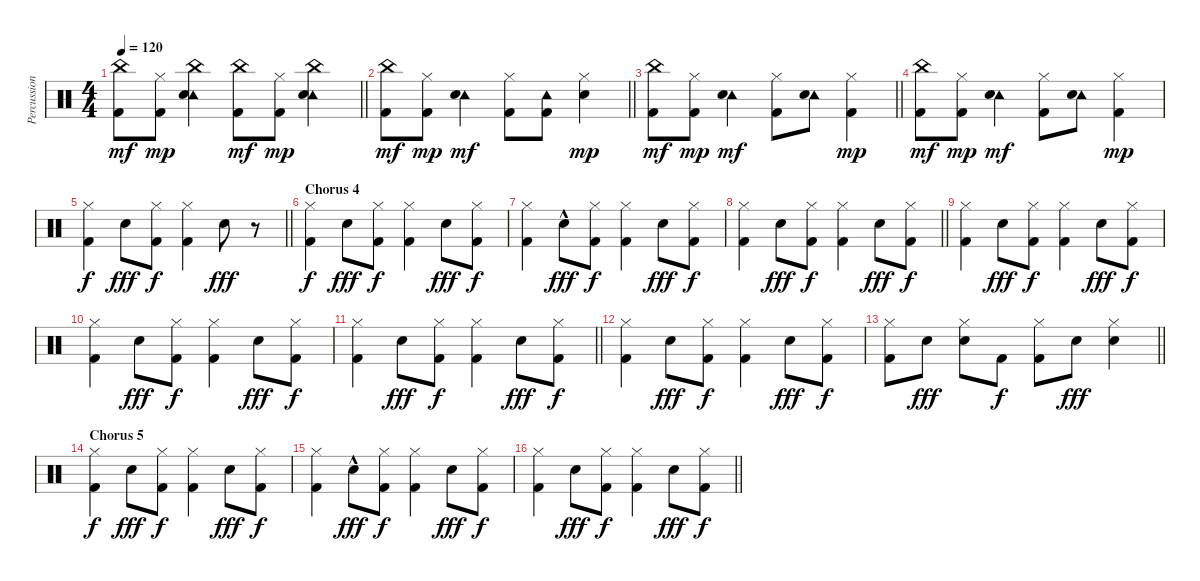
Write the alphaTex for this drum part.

\track ("Percussion" "Percussion") {instrument percussion}
\staff {score}
\articulation defaults
\ts (4 4)
\tempo 120
\clef neutral
\barLineRight lightlight
\ks c
("China (hit)" "Kick (hit) 2").8{dy mf} ("Hi-Hat (closed)" "Kick (hit) 2").8{dy mp} ("Tambourine (hit)" "Snare (hit) 2" "China (hit)").4 ("China (hit)" "Kick (hit) 2").8{dy mf} ("Hi-Hat (closed)" "Kick (hit) 2").8{dy mp} ("Tambourine (hit)" "Snare (hit) 2" "China (hit)").4 |
\barLineRight lightlight
("China (hit)" "Kick (hit) 2").8{dy mf} ("Hi-Hat (closed)" "Kick (hit) 2").8{dy mp} ("Tambourine (hit)" "Snare (hit) 2").4{dy mf} ("Hi-Hat (closed)" "Kick (hit) 2").8 ("Tambourine (hit)" "Kick (hit) 2").8 ("Hi-Hat (closed)" "Snare (hit) 2").4{dy mp} |
\barLineRight lightlight
("China (hit)" "Kick (hit) 2").8{dy mf} ("Hi-Hat (closed)" "Kick (hit) 2").8{dy mp} ("Tambourine (hit)" "Snare (hit) 2").4{dy mf} ("Hi-Hat (closed)" "Kick (hit) 2").8 ("Tambourine (hit)" "Snare (hit) 2").8 ("Hi-Hat (closed)" "Kick (hit) 2").4{dy mp} |
("China (hit)" "Kick (hit) 2").8{dy mf} ("Hi-Hat (closed)" "Kick (hit) 2").8{dy mp} ("Tambourine (hit)" "Snare (hit) 2").4{dy mf} ("Hi-Hat (closed)" "Kick (hit) 2").8 ("Tambourine (hit)" "Snare (hit) 2").8 ("Hi-Hat (closed)" "Kick (hit) 2").4{dy mp} |
\barLineRight lightlight
("Kick (hit) 2" "Hi-Hat (closed)").4{dy f} "Snare (hit) 2".8{dy fff} ("Kick (hit) 2" "Hi-Hat (closed)").8{dy f} ("Kick (hit) 2" "Hi-Hat (closed)").4 "Snare (hit) 2".8{dy fff} r.8 |
\section ("" "Chorus 4")
("Kick (hit) 2" "Hi-Hat (closed)").4{dy f} "Snare (hit) 2".8{dy fff} ("Kick (hit) 2" "Hi-Hat (closed)").8{dy f} ("Kick (hit) 2" "Hi-Hat (closed)").4 "Snare (hit) 2".8{dy fff} ("Kick (hit) 2" "Hi-Hat (closed)").8{dy f} |
("Kick (hit) 2" "Hi-Hat (closed)").4 "Snare (hit) 2"{hac}.8{dy fff} ("Kick (hit) 2" "Hi-Hat (closed)").8{dy f} ("Kick (hit) 2" "Hi-Hat (closed)").4 "Snare (hit) 2".8{dy fff} ("Kick (hit) 2" "Hi-Hat (closed)").8{dy f} |
\barLineRight lightlight
("Kick (hit) 2" "Hi-Hat (closed)").4 "Snare (hit) 2".8{dy fff} ("Kick (hit) 2" "Hi-Hat (closed)").8{dy f} ("Kick (hit) 2" "Hi-Hat (closed)").4 "Snare (hit) 2".8{dy fff} ("Kick (hit) 2" "Hi-Hat (closed)").8{dy f} |
("Kick (hit) 2" "Hi-Hat (closed)").4 "Snare (hit) 2".8{dy fff} ("Kick (hit) 2" "Hi-Hat (closed)").8{dy f} ("Kick (hit) 2" "Hi-Hat (closed)").4 "Snare (hit) 2".8{dy fff} ("Kick (hit) 2" "Hi-Hat (closed)").8{dy f} |
("Kick (hit) 2" "Hi-Hat (closed)").4 "Snare (hit) 2".8{dy fff} ("Kick (hit) 2" "Hi-Hat (closed)").8{dy f} ("Kick (hit) 2" "Hi-Hat (closed)").4 "Snare (hit) 2".8{dy fff} ("Kick (hit) 2" "Hi-Hat (closed)").8{dy f} |
\barLineRight lightlight
("Kick (hit) 2" "Hi-Hat (closed)").4 "Snare (hit) 2".8{dy fff} ("Kick (hit) 2" "Hi-Hat (closed)").8{dy f} ("Kick (hit) 2" "Hi-Hat (closed)").4 "Snare (hit) 2".8{dy fff} ("Kick (hit) 2" "Hi-Hat (closed)").8{dy f} |
("Kick (hit) 2" "Hi-Hat (closed)").4 "Snare (hit) 2".8{dy fff} ("Kick (hit) 2" "Hi-Hat (closed)").8{dy f} ("Kick (hit) 2" "Hi-Hat (closed)").4 "Snare (hit) 2".8{dy fff} ("Kick (hit) 2" "Hi-Hat (closed)").8{dy f} |
\barLineRight lightlight
("Kick (hit) 2" "Hi-Hat (closed)").8 "Snare (hit) 2".8{dy fff} ("Snare (hit) 2" "Hi-Hat (closed)").8 "Kick (hit) 2".8{dy f} ("Kick (hit) 2" "Hi-Hat (closed)").8 "Snare (hit) 2".8{dy fff} ("Snare (hit) 2" "Hi-Hat (closed)").4 |
\section ("" "Chorus 5")
("Kick (hit) 2" "Hi-Hat (closed)").4{dy f} "Snare (hit) 2".8{dy fff} ("Kick (hit) 2" "Hi-Hat (closed)").8{dy f} ("Kick (hit) 2" "Hi-Hat (closed)").4 "Snare (hit) 2".8{dy fff} ("Kick (hit) 2" "Hi-Hat (closed)").8{dy f} |
("Kick (hit) 2" "Hi-Hat (closed)").4 "Snare (hit) 2"{hac}.8{dy fff} ("Kick (hit) 2" "Hi-Hat (closed)").8{dy f} ("Kick (hit) 2" "Hi-Hat (closed)").4 "Snare (hit) 2".8{dy fff} ("Kick (hit) 2" "Hi-Hat (closed)").8{dy f} |
\barLineRight lightlight
("Kick (hit) 2" "Hi-Hat (closed)").4 "Snare (hit) 2".8{dy fff} ("Kick (hit) 2" "Hi-Hat (closed)").8{dy f} ("Kick (hit) 2" "Hi-Hat (closed)").4 "Snare (hit) 2".8{dy fff} ("Kick (hit) 2" "Hi-Hat (closed)").8{dy f}
